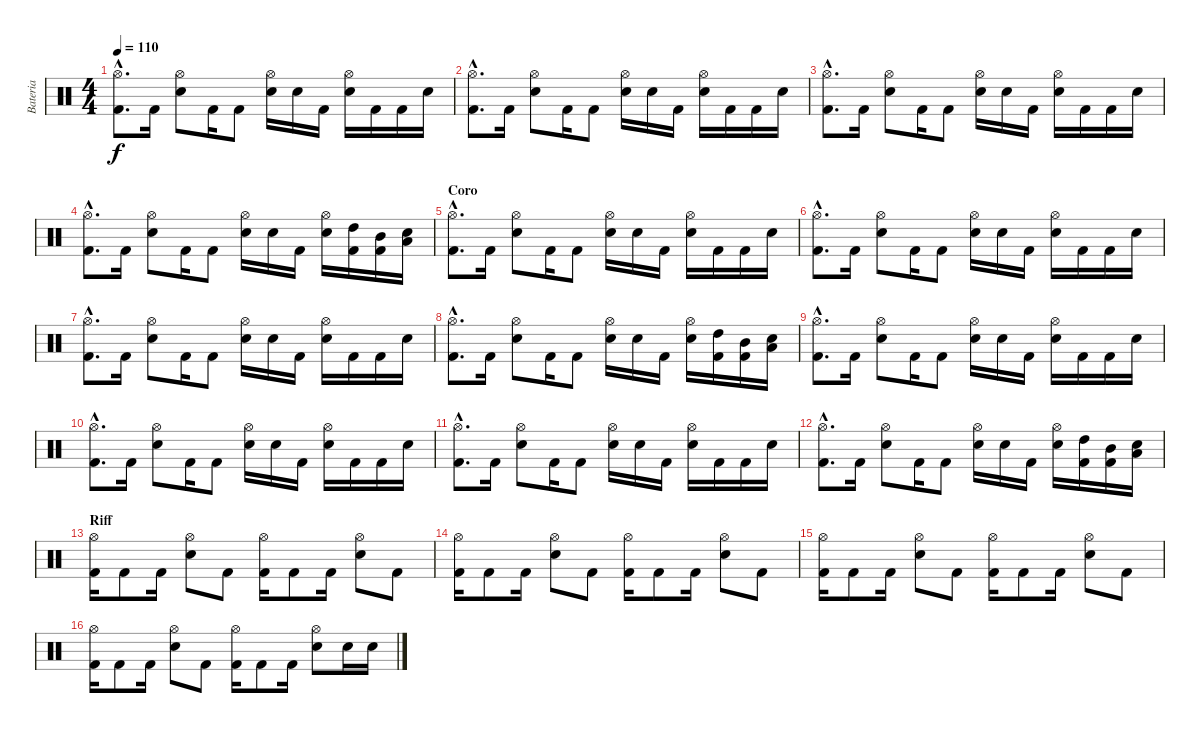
\track ("Bateria" "Bateria") {instrument percussion}
\staff {score}
\articulation defaults
\ts (4 4)
\tempo 110
\clef neutral
\ks c
("Kick (hit) 2"{hac} "Hi-Hat (open)"{hac}).8{d dy f} "Kick (hit) 2".16 ("Electric Snare (hit)" "Hi-Hat (open)").8 "Kick (hit) 2".16 "Kick (hit) 2".8 ("Electric Snare (hit)" "Hi-Hat (open)").16 "Electric Snare (hit)".16 "Kick (hit) 2".16 ("Electric Snare (hit)" "Hi-Hat (open)").16 "Kick (hit) 2".16 "Kick (hit) 2".16 "Electric Snare (hit)".16 |
("Kick (hit) 2"{hac} "Hi-Hat (open)"{hac}).8{d} "Kick (hit) 2".16 ("Electric Snare (hit)" "Hi-Hat (open)").8 "Kick (hit) 2".16 "Kick (hit) 2".8 ("Electric Snare (hit)" "Hi-Hat (open)").16 "Electric Snare (hit)".16 "Kick (hit) 2".16 ("Electric Snare (hit)" "Hi-Hat (open)").16 "Kick (hit) 2".16 "Kick (hit) 2".16 "Electric Snare (hit)".16 |
("Kick (hit) 2"{hac} "Hi-Hat (open)"{hac}).8{d} "Kick (hit) 2".16 ("Electric Snare (hit)" "Hi-Hat (open)").8 "Kick (hit) 2".16 "Kick (hit) 2".8 ("Electric Snare (hit)" "Hi-Hat (open)").16 "Electric Snare (hit)".16 "Kick (hit) 2".16 ("Electric Snare (hit)" "Hi-Hat (open)").16 "Kick (hit) 2".16 "Kick (hit) 2".16 "Electric Snare (hit)".16 |
("Kick (hit) 2"{hac} "Hi-Hat (open)"{hac}).8{d} "Kick (hit) 2".16 ("Electric Snare (hit)" "Hi-Hat (open)").8 "Kick (hit) 2".16 "Kick (hit) 2".8 ("Electric Snare (hit)" "Hi-Hat (open)").16 "Electric Snare (hit)".16 "Kick (hit) 2".16 ("Electric Snare (hit)" "Hi-Hat (open)").16 ("Kick (hit) 2" "High Tom (hit)").16 ("Kick (hit) 2" "Mid Tom (hit)").16 ("Electric Snare (hit)" "Low Tom (hit)").16 |
\section ("" "Coro")
("Kick (hit) 2"{hac} "Hi-Hat (open)"{hac}).8{d} "Kick (hit) 2".16 ("Electric Snare (hit)" "Hi-Hat (open)").8 "Kick (hit) 2".16 "Kick (hit) 2".8 ("Electric Snare (hit)" "Hi-Hat (open)").16 "Electric Snare (hit)".16 "Kick (hit) 2".16 ("Electric Snare (hit)" "Hi-Hat (open)").16 "Kick (hit) 2".16 "Kick (hit) 2".16 "Electric Snare (hit)".16 |
("Kick (hit) 2"{hac} "Hi-Hat (open)"{hac}).8{d} "Kick (hit) 2".16 ("Electric Snare (hit)" "Hi-Hat (open)").8 "Kick (hit) 2".16 "Kick (hit) 2".8 ("Electric Snare (hit)" "Hi-Hat (open)").16 "Electric Snare (hit)".16 "Kick (hit) 2".16 ("Electric Snare (hit)" "Hi-Hat (open)").16 "Kick (hit) 2".16 "Kick (hit) 2".16 "Electric Snare (hit)".16 |
("Kick (hit) 2"{hac} "Hi-Hat (open)"{hac}).8{d} "Kick (hit) 2".16 ("Electric Snare (hit)" "Hi-Hat (open)").8 "Kick (hit) 2".16 "Kick (hit) 2".8 ("Electric Snare (hit)" "Hi-Hat (open)").16 "Electric Snare (hit)".16 "Kick (hit) 2".16 ("Electric Snare (hit)" "Hi-Hat (open)").16 "Kick (hit) 2".16 "Kick (hit) 2".16 "Electric Snare (hit)".16 |
("Kick (hit) 2"{hac} "Hi-Hat (open)"{hac}).8{d} "Kick (hit) 2".16 ("Electric Snare (hit)" "Hi-Hat (open)").8 "Kick (hit) 2".16 "Kick (hit) 2".8 ("Electric Snare (hit)" "Hi-Hat (open)").16 "Electric Snare (hit)".16 "Kick (hit) 2".16 ("Electric Snare (hit)" "Hi-Hat (open)").16 ("Kick (hit) 2" "High Tom (hit)").16 ("Kick (hit) 2" "Mid Tom (hit)").16 ("Electric Snare (hit)" "Low Tom (hit)").16 |
("Kick (hit) 2"{hac} "Hi-Hat (open)"{hac}).8{d} "Kick (hit) 2".16 ("Electric Snare (hit)" "Hi-Hat (open)").8 "Kick (hit) 2".16 "Kick (hit) 2".8 ("Electric Snare (hit)" "Hi-Hat (open)").16 "Electric Snare (hit)".16 "Kick (hit) 2".16 ("Electric Snare (hit)" "Hi-Hat (open)").16 "Kick (hit) 2".16 "Kick (hit) 2".16 "Electric Snare (hit)".16 |
("Kick (hit) 2"{hac} "Hi-Hat (open)"{hac}).8{d} "Kick (hit) 2".16 ("Electric Snare (hit)" "Hi-Hat (open)").8 "Kick (hit) 2".16 "Kick (hit) 2".8 ("Electric Snare (hit)" "Hi-Hat (open)").16 "Electric Snare (hit)".16 "Kick (hit) 2".16 ("Electric Snare (hit)" "Hi-Hat (open)").16 "Kick (hit) 2".16 "Kick (hit) 2".16 "Electric Snare (hit)".16 |
("Kick (hit) 2"{hac} "Hi-Hat (open)"{hac}).8{d} "Kick (hit) 2".16 ("Electric Snare (hit)" "Hi-Hat (open)").8 "Kick (hit) 2".16 "Kick (hit) 2".8 ("Electric Snare (hit)" "Hi-Hat (open)").16 "Electric Snare (hit)".16 "Kick (hit) 2".16 ("Electric Snare (hit)" "Hi-Hat (open)").16 "Kick (hit) 2".16 "Kick (hit) 2".16 "Electric Snare (hit)".16 |
("Kick (hit) 2"{hac} "Hi-Hat (open)"{hac}).8{d} "Kick (hit) 2".16 ("Electric Snare (hit)" "Hi-Hat (open)").8 "Kick (hit) 2".16 "Kick (hit) 2".8 ("Electric Snare (hit)" "Hi-Hat (open)").16 "Electric Snare (hit)".16 "Kick (hit) 2".16 ("Electric Snare (hit)" "Hi-Hat (open)").16 ("Kick (hit) 2" "High Tom (hit)").16 ("Kick (hit) 2" "Mid Tom (hit)").16 ("Electric Snare (hit)" "Low Tom (hit)").16 |
\section ("" "Riff")
("Kick (hit) 2" "Hi-Hat (open)").16 "Kick (hit) 2".8 "Kick (hit) 2".16 ("Electric Snare (hit)" "Hi-Hat (open)").8 "Kick (hit) 2".8 ("Kick (hit) 2" "Hi-Hat (open)").16 "Kick (hit) 2".8 "Kick (hit) 2".16 ("Electric Snare (hit)" "Hi-Hat (open)").8 "Kick (hit) 2".8 |
("Kick (hit) 2" "Hi-Hat (open)").16 "Kick (hit) 2".8 "Kick (hit) 2".16 ("Electric Snare (hit)" "Hi-Hat (open)").8 "Kick (hit) 2".8 ("Kick (hit) 2" "Hi-Hat (open)").16 "Kick (hit) 2".8 "Kick (hit) 2".16 ("Electric Snare (hit)" "Hi-Hat (open)").8 "Kick (hit) 2".8 |
("Kick (hit) 2" "Hi-Hat (open)").16 "Kick (hit) 2".8 "Kick (hit) 2".16 ("Electric Snare (hit)" "Hi-Hat (open)").8 "Kick (hit) 2".8 ("Kick (hit) 2" "Hi-Hat (open)").16 "Kick (hit) 2".8 "Kick (hit) 2".16 ("Electric Snare (hit)" "Hi-Hat (open)").8 "Kick (hit) 2".8 |
("Kick (hit) 2" "Hi-Hat (open)").16 "Kick (hit) 2".8 "Kick (hit) 2".16 ("Electric Snare (hit)" "Hi-Hat (open)").8 "Kick (hit) 2".8 ("Kick (hit) 2" "Hi-Hat (open)").16 "Kick (hit) 2".8 "Kick (hit) 2".16 ("Electric Snare (hit)" "Hi-Hat (open)").8 "Electric Snare (hit)".16 "Electric Snare (hit)".16
